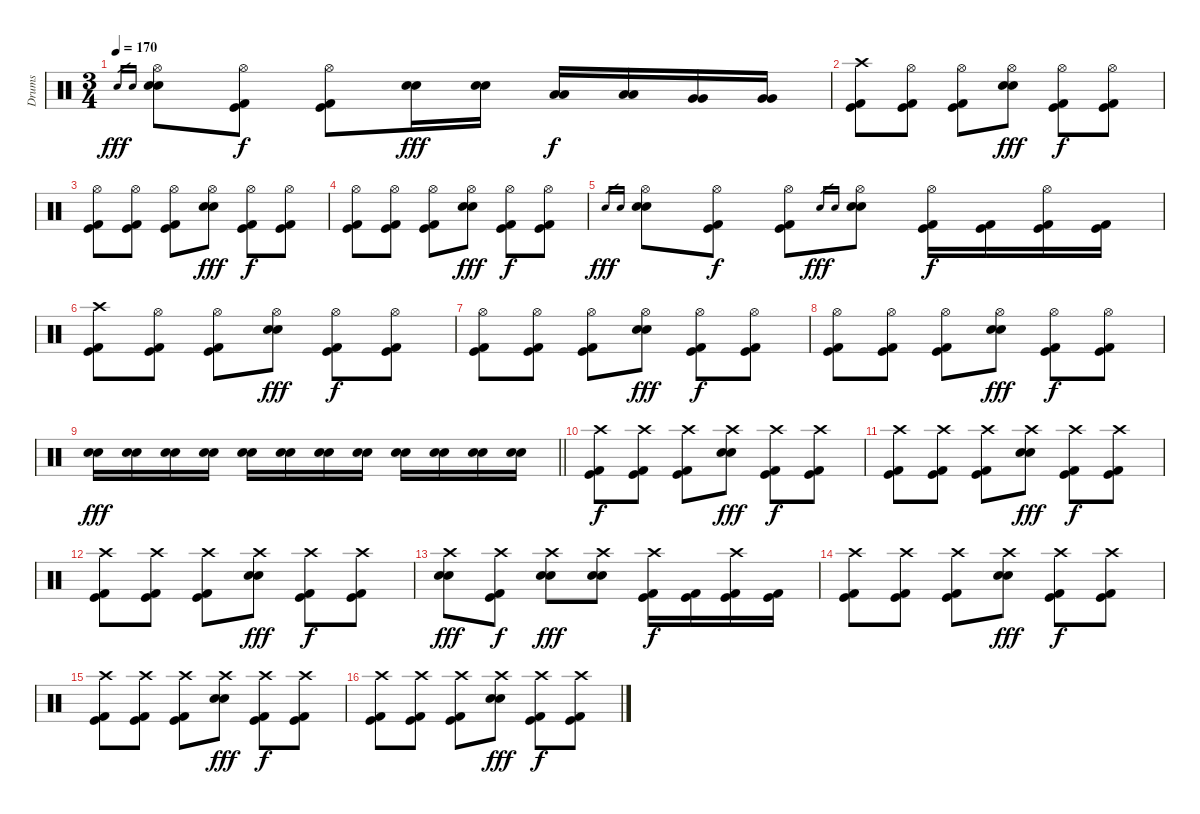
\track ("Drums" "Drums") {instrument percussion}
\staff {score}
\articulation defaults
\ts (3 4)
\tempo 170
\clef neutral
\ks c "Electric Snare (hit)".16{gr dy fff} "Electric Snare (hit)".16{gr}
("Hi-Hat (open)" "Electric Snare (hit)" "Electric Snare (hit)").8 ("Hi-Hat (open)" "Kick (hit)" "Kick (hit) 2").8{dy f} ("Hi-Hat (open)" "Kick (hit)" "Kick (hit) 2").8 ("Electric Snare (hit)" "Electric Snare (hit)").16{dy fff} ("Electric Snare (hit)" "Electric Snare (hit)").16 ("Low Tom (hit)" "Low Tom (hit)").16{dy f} ("Low Tom (hit)" "Low Tom (hit)").16 ("Very Low Tom (hit)" "Very Low Tom (hit)").16 ("Very Low Tom (hit)" "Very Low Tom (hit)").16 |
("Crash high (hit)" "Kick (hit)" "Kick (hit) 2").8 ("Hi-Hat (open)" "Kick (hit)" "Kick (hit) 2").8 ("Hi-Hat (open)" "Kick (hit)" "Kick (hit) 2").8 ("Hi-Hat (open)" "Electric Snare (hit)" "Electric Snare (hit)").8{dy fff} ("Hi-Hat (open)" "Kick (hit)" "Kick (hit) 2").8{dy f} ("Hi-Hat (open)" "Kick (hit)" "Kick (hit) 2").8 |
("Hi-Hat (open)" "Kick (hit)" "Kick (hit) 2").8 ("Hi-Hat (open)" "Kick (hit)" "Kick (hit) 2").8 ("Hi-Hat (open)" "Kick (hit)" "Kick (hit) 2").8 ("Hi-Hat (open)" "Electric Snare (hit)" "Electric Snare (hit)").8{dy fff} ("Hi-Hat (open)" "Kick (hit)" "Kick (hit) 2").8{dy f} ("Hi-Hat (open)" "Kick (hit)" "Kick (hit) 2").8 |
("Hi-Hat (open)" "Kick (hit)" "Kick (hit) 2").8 ("Hi-Hat (open)" "Kick (hit)" "Kick (hit) 2").8 ("Hi-Hat (open)" "Kick (hit)" "Kick (hit) 2").8 ("Hi-Hat (open)" "Electric Snare (hit)" "Electric Snare (hit)").8{dy fff} ("Hi-Hat (open)" "Kick (hit)" "Kick (hit) 2").8{dy f} ("Hi-Hat (open)" "Kick (hit)" "Kick (hit) 2").8 |
"Electric Snare (hit)".16{gr dy fff} "Electric Snare (hit)".16{gr} ("Hi-Hat (open)" "Electric Snare (hit)" "Electric Snare (hit)").8 ("Hi-Hat (open)" "Kick (hit)" "Kick (hit) 2").8{dy f} ("Hi-Hat (open)" "Kick (hit)" "Kick (hit) 2").8 "Electric Snare (hit)".16{gr dy fff} "Electric Snare (hit)".16{gr} ("Hi-Hat (open)" "Electric Snare (hit)" "Electric Snare (hit)").8 ("Hi-Hat (open)" "Kick (hit)" "Kick (hit) 2").16{dy f} ("Kick (hit)" "Kick (hit) 2").16 ("Hi-Hat (open)" "Kick (hit)" "Kick (hit) 2").16 ("Kick (hit)" "Kick (hit) 2").16 |
("Crash high (hit)" "Kick (hit)" "Kick (hit) 2").8 ("Hi-Hat (open)" "Kick (hit)" "Kick (hit) 2").8 ("Hi-Hat (open)" "Kick (hit)" "Kick (hit) 2").8 ("Hi-Hat (open)" "Electric Snare (hit)" "Electric Snare (hit)").8{dy fff} ("Hi-Hat (open)" "Kick (hit)" "Kick (hit) 2").8{dy f} ("Hi-Hat (open)" "Kick (hit)" "Kick (hit) 2").8 |
("Hi-Hat (open)" "Kick (hit)" "Kick (hit) 2").8 ("Hi-Hat (open)" "Kick (hit)" "Kick (hit) 2").8 ("Hi-Hat (open)" "Kick (hit)" "Kick (hit) 2").8 ("Hi-Hat (open)" "Electric Snare (hit)" "Electric Snare (hit)").8{dy fff} ("Hi-Hat (open)" "Kick (hit)" "Kick (hit) 2").8{dy f} ("Hi-Hat (open)" "Kick (hit)" "Kick (hit) 2").8 |
("Hi-Hat (open)" "Kick (hit)" "Kick (hit) 2").8 ("Hi-Hat (open)" "Kick (hit)" "Kick (hit) 2").8 ("Hi-Hat (open)" "Kick (hit)" "Kick (hit) 2").8 ("Hi-Hat (open)" "Electric Snare (hit)" "Electric Snare (hit)").8{dy fff} ("Hi-Hat (open)" "Kick (hit)" "Kick (hit) 2").8{dy f} ("Hi-Hat (open)" "Kick (hit)" "Kick (hit) 2").8 |
\barLineRight lightlight
("Electric Snare (hit)" "Electric Snare (hit)").16{dy fff} ("Electric Snare (hit)" "Electric Snare (hit)").16 ("Electric Snare (hit)" "Electric Snare (hit)").16 ("Electric Snare (hit)" "Electric Snare (hit)").16 ("Electric Snare (hit)" "Electric Snare (hit)").16 ("Electric Snare (hit)" "Electric Snare (hit)").16 ("Electric Snare (hit)" "Electric Snare (hit)").16 ("Electric Snare (hit)" "Electric Snare (hit)").16 ("Electric Snare (hit)" "Electric Snare (hit)").16 ("Electric Snare (hit)" "Electric Snare (hit)").16 ("Electric Snare (hit)" "Electric Snare (hit)").16 ("Electric Snare (hit)" "Electric Snare (hit)").16 |
("Crash high (hit)" "Kick (hit)" "Kick (hit) 2").8{dy f} ("Crash high (hit)" "Kick (hit)" "Kick (hit) 2").8 ("Crash high (hit)" "Kick (hit)" "Kick (hit) 2").8 ("Crash high (hit)" "Electric Snare (hit)" "Electric Snare (hit)").8{dy fff} ("Crash high (hit)" "Kick (hit)" "Kick (hit) 2").8{dy f} ("Crash high (hit)" "Kick (hit)" "Kick (hit) 2").8 |
("Crash high (hit)" "Kick (hit)" "Kick (hit) 2").8 ("Crash high (hit)" "Kick (hit)" "Kick (hit) 2").8 ("Crash high (hit)" "Kick (hit)" "Kick (hit) 2").8 ("Crash high (hit)" "Electric Snare (hit)" "Electric Snare (hit)").8{dy fff} ("Crash high (hit)" "Kick (hit)" "Kick (hit) 2").8{dy f} ("Crash high (hit)" "Kick (hit)" "Kick (hit) 2").8 |
("Crash high (hit)" "Kick (hit)" "Kick (hit) 2").8 ("Crash high (hit)" "Kick (hit)" "Kick (hit) 2").8 ("Crash high (hit)" "Kick (hit)" "Kick (hit) 2").8 ("Crash high (hit)" "Electric Snare (hit)" "Electric Snare (hit)").8{dy fff} ("Crash high (hit)" "Kick (hit)" "Kick (hit) 2").8{dy f} ("Crash high (hit)" "Kick (hit)" "Kick (hit) 2").8 |
("Crash high (hit)" "Electric Snare (hit)" "Electric Snare (hit)").8{dy fff} ("Crash high (hit)" "Kick (hit)" "Kick (hit) 2").8{dy f} ("Crash high (hit)" "Electric Snare (hit)" "Electric Snare (hit)").8{dy fff} ("Crash high (hit)" "Electric Snare (hit)" "Electric Snare (hit)").8 ("Crash high (hit)" "Kick (hit)" "Kick (hit) 2").16{dy f} ("Kick (hit)" "Kick (hit) 2").16 ("Crash high (hit)" "Kick (hit)" "Kick (hit) 2").16 ("Kick (hit)" "Kick (hit) 2").16 |
("Crash high (hit)" "Kick (hit)" "Kick (hit) 2").8 ("Crash high (hit)" "Kick (hit)" "Kick (hit) 2").8 ("Crash high (hit)" "Kick (hit)" "Kick (hit) 2").8 ("Crash high (hit)" "Electric Snare (hit)" "Electric Snare (hit)").8{dy fff} ("Crash high (hit)" "Kick (hit)" "Kick (hit) 2").8{dy f} ("Crash high (hit)" "Kick (hit)" "Kick (hit) 2").8 |
("Crash high (hit)" "Kick (hit)" "Kick (hit) 2").8 ("Crash high (hit)" "Kick (hit)" "Kick (hit) 2").8 ("Crash high (hit)" "Kick (hit)" "Kick (hit) 2").8 ("Crash high (hit)" "Electric Snare (hit)" "Electric Snare (hit)").8{dy fff} ("Crash high (hit)" "Kick (hit)" "Kick (hit) 2").8{dy f} ("Crash high (hit)" "Kick (hit)" "Kick (hit) 2").8 |
("Crash high (hit)" "Kick (hit)" "Kick (hit) 2").8 ("Crash high (hit)" "Kick (hit)" "Kick (hit) 2").8 ("Crash high (hit)" "Kick (hit)" "Kick (hit) 2").8 ("Crash high (hit)" "Electric Snare (hit)" "Electric Snare (hit)").8{dy fff} ("Crash high (hit)" "Kick (hit)" "Kick (hit) 2").8{dy f} ("Crash high (hit)" "Kick (hit)" "Kick (hit) 2").8
